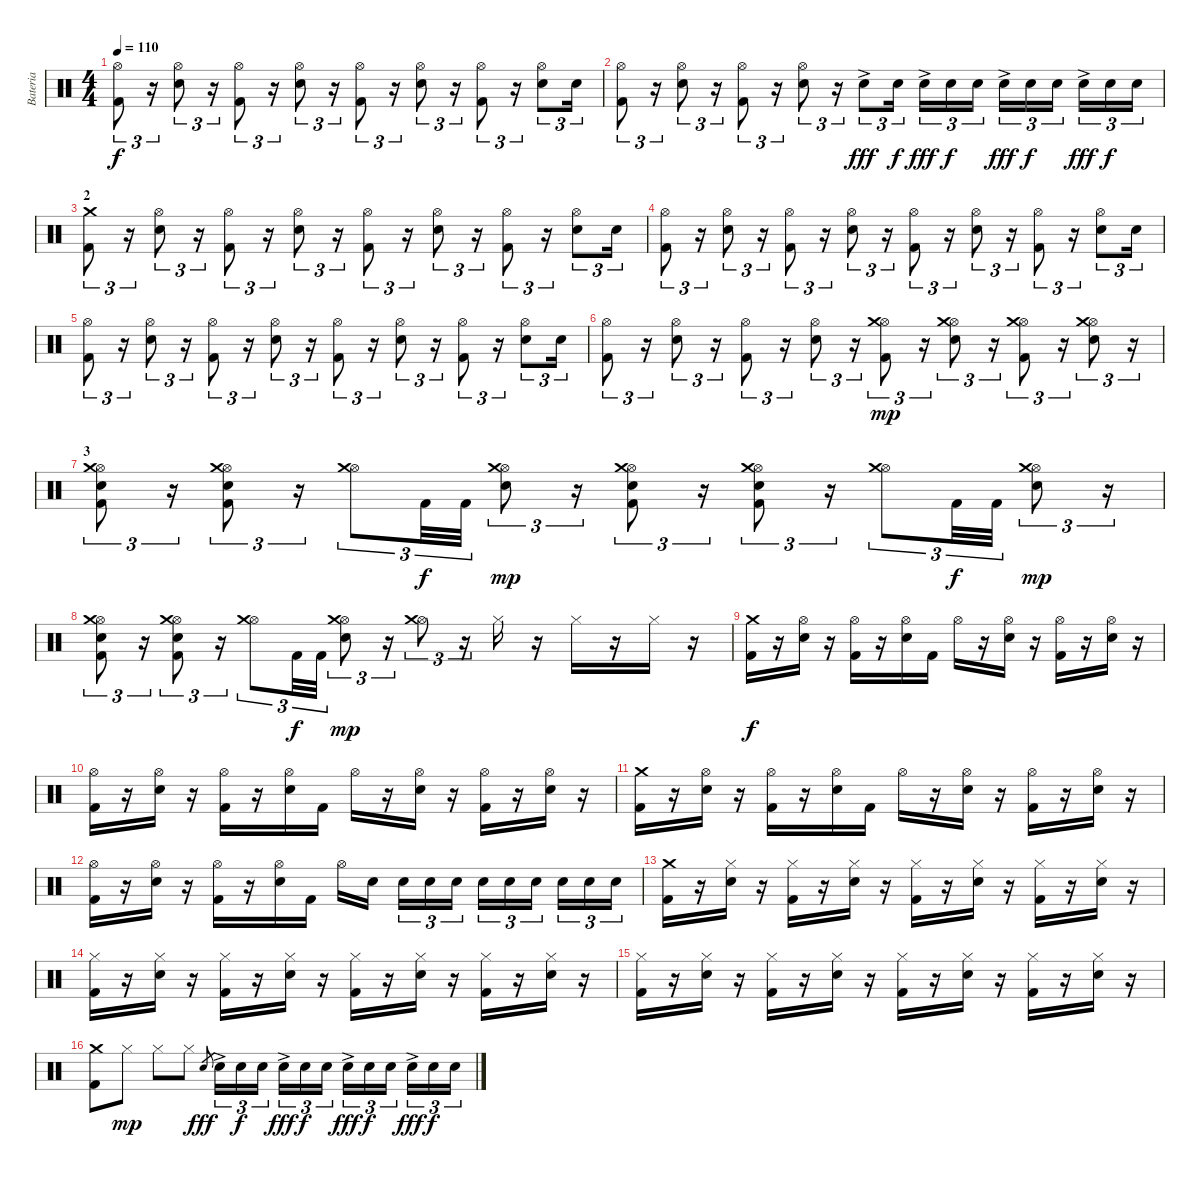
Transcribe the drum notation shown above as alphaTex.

\track ("Bateria" "Bateria") {instrument percussion}
\staff {score}
\articulation defaults
\ts (4 4)
\tempo 110
\clef neutral
\ks c
("Hi-Hat (open)" "Kick (hit) 2").8{tu (3 2) dy f} r.16{tu (3 2)} ("Hi-Hat (open)" "Electric Snare (hit)").8{tu (3 2)} r.16{tu (3 2)} ("Hi-Hat (open)" "Kick (hit) 2").8{tu (3 2)} r.16{tu (3 2)} ("Hi-Hat (open)" "Electric Snare (hit)").8{tu (3 2)} r.16{tu (3 2)} ("Hi-Hat (open)" "Kick (hit) 2").8{tu (3 2)} r.16{tu (3 2)} ("Hi-Hat (open)" "Electric Snare (hit)").8{tu (3 2)} r.16{tu (3 2)} ("Hi-Hat (open)" "Kick (hit) 2").8{tu (3 2)} r.16{tu (3 2)} ("Hi-Hat (open)" "Electric Snare (hit)").8{tu (3 2)} "Electric Snare (hit)".16{tu (3 2)} |
("Hi-Hat (open)" "Kick (hit) 2").8{tu (3 2)} r.16{tu (3 2)} ("Hi-Hat (open)" "Electric Snare (hit)").8{tu (3 2)} r.16{tu (3 2)} ("Hi-Hat (open)" "Kick (hit) 2").8{tu (3 2)} r.16{tu (3 2)} ("Hi-Hat (open)" "Electric Snare (hit)").8{tu (3 2)} r.16{tu (3 2)} "Electric Snare (hit)"{ac}.8{tu (3 2) dy fff} "Electric Snare (hit)".16{tu (3 2) dy f} "Electric Snare (hit)"{ac}.16{tu (3 2) dy fff} "Electric Snare (hit)".16{tu (3 2) dy f} "Electric Snare (hit)".16{tu (3 2)} "Electric Snare (hit)"{ac}.16{tu (3 2) dy fff} "Electric Snare (hit)".16{tu (3 2) dy f} "Electric Snare (hit)".16{tu (3 2)} "Electric Snare (hit)"{ac}.16{tu (3 2) dy fff} "Electric Snare (hit)".16{tu (3 2) dy f} "Electric Snare (hit)".16{tu (3 2)} |
\section ("" "2")
("Crash medium (hit)" "Kick (hit) 2").8{tu (3 2)} r.16{tu (3 2)} ("Hi-Hat (open)" "Electric Snare (hit)").8{tu (3 2)} r.16{tu (3 2)} ("Hi-Hat (open)" "Kick (hit) 2").8{tu (3 2)} r.16{tu (3 2)} ("Hi-Hat (open)" "Electric Snare (hit)").8{tu (3 2)} r.16{tu (3 2)} ("Hi-Hat (open)" "Kick (hit) 2").8{tu (3 2)} r.16{tu (3 2)} ("Hi-Hat (open)" "Electric Snare (hit)").8{tu (3 2)} r.16{tu (3 2)} ("Hi-Hat (open)" "Kick (hit) 2").8{tu (3 2)} r.16{tu (3 2)} ("Hi-Hat (open)" "Electric Snare (hit)").8{tu (3 2)} "Electric Snare (hit)".16{tu (3 2)} |
("Hi-Hat (open)" "Kick (hit) 2").8{tu (3 2)} r.16{tu (3 2)} ("Hi-Hat (open)" "Electric Snare (hit)").8{tu (3 2)} r.16{tu (3 2)} ("Hi-Hat (open)" "Kick (hit) 2").8{tu (3 2)} r.16{tu (3 2)} ("Hi-Hat (open)" "Electric Snare (hit)").8{tu (3 2)} r.16{tu (3 2)} ("Hi-Hat (open)" "Kick (hit) 2").8{tu (3 2)} r.16{tu (3 2)} ("Hi-Hat (open)" "Electric Snare (hit)").8{tu (3 2)} r.16{tu (3 2)} ("Hi-Hat (open)" "Kick (hit) 2").8{tu (3 2)} r.16{tu (3 2)} ("Hi-Hat (open)" "Electric Snare (hit)").8{tu (3 2)} "Electric Snare (hit)".16{tu (3 2)} |
("Hi-Hat (open)" "Kick (hit) 2").8{tu (3 2)} r.16{tu (3 2)} ("Hi-Hat (open)" "Electric Snare (hit)").8{tu (3 2)} r.16{tu (3 2)} ("Hi-Hat (open)" "Kick (hit) 2").8{tu (3 2)} r.16{tu (3 2)} ("Hi-Hat (open)" "Electric Snare (hit)").8{tu (3 2)} r.16{tu (3 2)} ("Hi-Hat (open)" "Kick (hit) 2").8{tu (3 2)} r.16{tu (3 2)} ("Hi-Hat (open)" "Electric Snare (hit)").8{tu (3 2)} r.16{tu (3 2)} ("Hi-Hat (open)" "Kick (hit) 2").8{tu (3 2)} r.16{tu (3 2)} ("Hi-Hat (open)" "Electric Snare (hit)").8{tu (3 2)} "Electric Snare (hit)".16{tu (3 2)} |
("Hi-Hat (open)" "Kick (hit) 2").8{tu (3 2)} r.16{tu (3 2)} ("Hi-Hat (open)" "Electric Snare (hit)").8{tu (3 2)} r.16{tu (3 2)} ("Hi-Hat (open)" "Kick (hit) 2").8{tu (3 2)} r.16{tu (3 2)} ("Hi-Hat (open)" "Electric Snare (hit)").8{tu (3 2)} r.16{tu (3 2)} ("Hi-Hat (open)" "Crash medium (hit)" "Kick (hit) 2").8{tu (3 2) dy mp} r.16{tu (3 2)} ("Hi-Hat (open)" "Crash medium (hit)" "Electric Snare (hit)").8{tu (3 2)} r.16{tu (3 2)} ("Hi-Hat (open)" "Crash medium (hit)" "Kick (hit) 2").8{tu (3 2)} r.16{tu (3 2)} ("Hi-Hat (open)" "Crash medium (hit)" "Electric Snare (hit)").8{tu (3 2)} r.16{tu (3 2)} |
\section ("" "3")
("Hi-Hat (open)" "Crash medium (hit)" "Electric Snare (hit)" "Kick (hit) 2").8{tu (3 2)} r.16{tu (3 2)} ("Hi-Hat (open)" "Crash medium (hit)" "Electric Snare (hit)" "Kick (hit) 2").8{tu (3 2)} r.16{tu (3 2)} ("Hi-Hat (open)" "Crash medium (hit)").8{tu (3 2)} "Kick (hit) 2".32{tu (3 2) dy f} "Kick (hit) 2".32{tu (3 2)} ("Hi-Hat (open)" "Crash medium (hit)" "Electric Snare (hit)").8{tu (3 2) dy mp} r.16{tu (3 2)} ("Hi-Hat (open)" "Crash medium (hit)" "Electric Snare (hit)" "Kick (hit) 2").8{tu (3 2)} r.16{tu (3 2)} ("Hi-Hat (open)" "Crash medium (hit)" "Electric Snare (hit)" "Kick (hit) 2").8{tu (3 2)} r.16{tu (3 2)} ("Hi-Hat (open)" "Crash medium (hit)").8{tu (3 2)} "Kick (hit) 2".32{tu (3 2) dy f} "Kick (hit) 2".32{tu (3 2)} ("Hi-Hat (open)" "Crash medium (hit)" "Electric Snare (hit)").8{tu (3 2) dy mp} r.16{tu (3 2)} |
("Hi-Hat (open)" "Crash medium (hit)" "Electric Snare (hit)" "Kick (hit) 2").8{tu (3 2)} r.16{tu (3 2)} ("Hi-Hat (open)" "Crash medium (hit)" "Electric Snare (hit)" "Kick (hit) 2").8{tu (3 2)} r.16{tu (3 2)} ("Hi-Hat (open)" "Crash medium (hit)").8{tu (3 2)} "Kick (hit) 2".32{tu (3 2) dy f} "Kick (hit) 2".32{tu (3 2)} ("Hi-Hat (open)" "Crash medium (hit)" "Electric Snare (hit)").8{tu (3 2) dy mp} r.16{tu (3 2)} ("Hi-Hat (open)" "Crash medium (hit)").8{tu (3 2)} r.16{tu (3 2)} "Hi-Hat (closed)".16 r.16 "Hi-Hat (closed)".16 r.16 "Hi-Hat (closed)".16 r.16 |
("Crash medium (hit)" "Kick (hit) 2").16{dy f} r.16 ("Hi-Hat (open)" "Electric Snare (hit)").16 r.16 ("Hi-Hat (open)" "Kick (hit) 2").16 r.16 ("Hi-Hat (open)" "Electric Snare (hit)").16 "Kick (hit) 2".16 "Hi-Hat (open)".16 r.16 ("Hi-Hat (open)" "Electric Snare (hit)").16 r.16 ("Hi-Hat (open)" "Kick (hit) 2").16 r.16 ("Hi-Hat (open)" "Electric Snare (hit)").16 r.16 |
("Hi-Hat (open)" "Kick (hit) 2").16 r.16 ("Hi-Hat (open)" "Electric Snare (hit)").16 r.16 ("Hi-Hat (open)" "Kick (hit) 2").16 r.16 ("Hi-Hat (open)" "Electric Snare (hit)").16 "Kick (hit) 2".16 "Hi-Hat (open)".16 r.16 ("Hi-Hat (open)" "Electric Snare (hit)").16 r.16 ("Hi-Hat (open)" "Kick (hit) 2").16 r.16 ("Hi-Hat (open)" "Electric Snare (hit)").16 r.16 |
("Crash medium (hit)" "Kick (hit) 2").16 r.16 ("Hi-Hat (open)" "Electric Snare (hit)").16 r.16 ("Hi-Hat (open)" "Kick (hit) 2").16 r.16 ("Hi-Hat (open)" "Electric Snare (hit)").16 "Kick (hit) 2".16 "Hi-Hat (open)".16 r.16 ("Hi-Hat (open)" "Electric Snare (hit)").16 r.16 ("Hi-Hat (open)" "Kick (hit) 2").16 r.16 ("Hi-Hat (open)" "Electric Snare (hit)").16 r.16 |
("Hi-Hat (open)" "Kick (hit) 2").16 r.16 ("Hi-Hat (open)" "Electric Snare (hit)").16 r.16 ("Hi-Hat (open)" "Kick (hit) 2").16 r.16 ("Hi-Hat (open)" "Electric Snare (hit)").16 "Kick (hit) 2".16 "Hi-Hat (open)".16 "Electric Snare (hit)".16 "Electric Snare (hit)".16{tu (3 2)} "Electric Snare (hit)".16{tu (3 2)} "Electric Snare (hit)".16{tu (3 2)} "Electric Snare (hit)".16{tu (3 2)} "Electric Snare (hit)".16{tu (3 2)} "Electric Snare (hit)".16{tu (3 2)} "Electric Snare (hit)".16{tu (3 2)} "Electric Snare (hit)".16{tu (3 2)} "Electric Snare (hit)".16{tu (3 2)} |
("Crash medium (hit)" "Kick (hit) 2").16 r.16 ("Hi-Hat (closed)" "Electric Snare (hit)").16 r.16 ("Hi-Hat (closed)" "Kick (hit) 2").16 r.16 ("Hi-Hat (closed)" "Electric Snare (hit)").16 r.16 ("Hi-Hat (closed)" "Kick (hit) 2").16 r.16 ("Hi-Hat (closed)" "Electric Snare (hit)").16 r.16 ("Hi-Hat (closed)" "Kick (hit) 2").16 r.16 ("Hi-Hat (closed)" "Electric Snare (hit)").16 r.16 |
("Hi-Hat (closed)" "Kick (hit) 2").16 r.16 ("Hi-Hat (closed)" "Electric Snare (hit)").16 r.16 ("Hi-Hat (closed)" "Kick (hit) 2").16 r.16 ("Hi-Hat (closed)" "Electric Snare (hit)").16 r.16 ("Hi-Hat (closed)" "Kick (hit) 2").16 r.16 ("Hi-Hat (closed)" "Electric Snare (hit)").16 r.16 ("Hi-Hat (closed)" "Kick (hit) 2").16 r.16 ("Hi-Hat (closed)" "Electric Snare (hit)").16 r.16 |
("Hi-Hat (closed)" "Kick (hit) 2").16 r.16 ("Hi-Hat (closed)" "Electric Snare (hit)").16 r.16 ("Hi-Hat (closed)" "Kick (hit) 2").16 r.16 ("Hi-Hat (closed)" "Electric Snare (hit)").16 r.16 ("Hi-Hat (closed)" "Kick (hit) 2").16 r.16 ("Hi-Hat (closed)" "Electric Snare (hit)").16 r.16 ("Hi-Hat (closed)" "Kick (hit) 2").16 r.16 ("Hi-Hat (closed)" "Electric Snare (hit)").16 r.16 |
("Crash medium (hit)" "Kick (hit) 2").8 "Hi-Hat (closed)".8{dy mp} "Hi-Hat (closed)".8 "Hi-Hat (closed)".8 "Electric Snare (hit)".8{gr dy fff} "Electric Snare (hit)"{ac}.16{tu (3 2)} "Electric Snare (hit)".16{tu (3 2) dy f} "Electric Snare (hit)".16{tu (3 2)} "Electric Snare (hit)"{ac}.16{tu (3 2) dy fff} "Electric Snare (hit)".16{tu (3 2) dy f} "Electric Snare (hit)".16{tu (3 2)} "Electric Snare (hit)"{ac}.16{tu (3 2) dy fff} "Electric Snare (hit)".16{tu (3 2) dy f} "Electric Snare (hit)".16{tu (3 2)} "Electric Snare (hit)"{ac}.16{tu (3 2) dy fff} "Electric Snare (hit)".16{tu (3 2) dy f} "Electric Snare (hit)".16{tu (3 2)}
